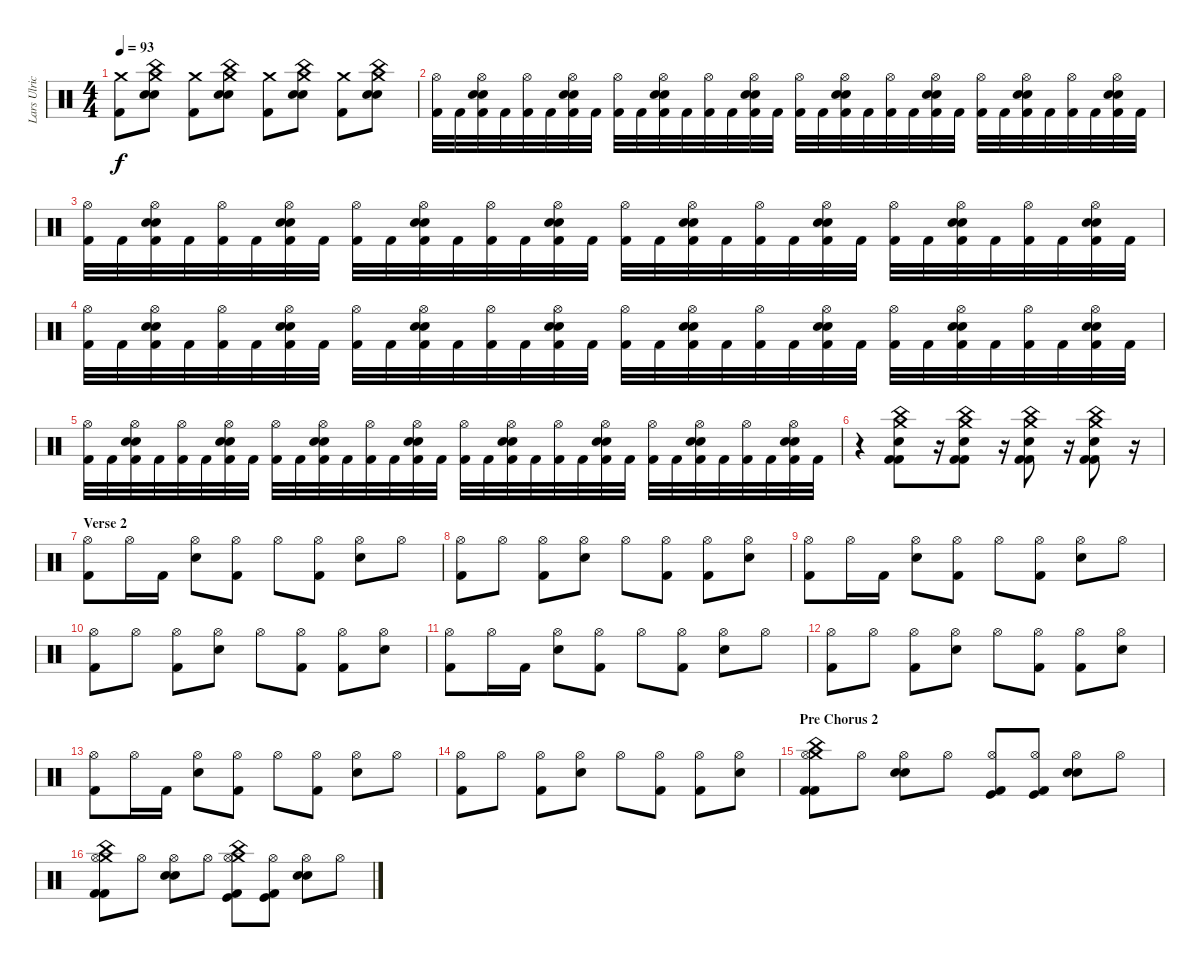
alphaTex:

\track ("Lars Ulrich" "Lars Ulric") {instrument percussion}
\staff {score}
\articulation defaults
\ts (4 4)
\tempo 93
\clef neutral
\ks c
("Crash medium (hit)" "Kick (hit) 2").8{dy f} ("Crash medium (hit)" "China (hit)" "Electric Snare (hit)" "Snare (hit) 2").8 ("Crash medium (hit)" "Kick (hit) 2").8 ("Crash medium (hit)" "China (hit)" "Electric Snare (hit)" "Snare (hit) 2").8 ("Crash medium (hit)" "Kick (hit) 2").8 ("Crash medium (hit)" "China (hit)" "Electric Snare (hit)" "Snare (hit) 2").8 ("Crash medium (hit)" "Kick (hit) 2").8 ("Crash medium (hit)" "China (hit)" "Electric Snare (hit)" "Snare (hit) 2").8 |
("Hi-Hat (open)" "Kick (hit) 2").32 "Kick (hit) 2".32 ("Hi-Hat (open)" "Electric Snare (hit)" "Snare (hit) 2" "Kick (hit) 2").32 "Kick (hit) 2".32 ("Hi-Hat (open)" "Kick (hit) 2").32 "Kick (hit) 2".32 ("Hi-Hat (open)" "Electric Snare (hit)" "Snare (hit) 2" "Kick (hit) 2").32 "Kick (hit) 2".32 ("Hi-Hat (open)" "Kick (hit) 2").32 "Kick (hit) 2".32 ("Hi-Hat (open)" "Electric Snare (hit)" "Snare (hit) 2" "Kick (hit) 2").32 "Kick (hit) 2".32 ("Hi-Hat (open)" "Kick (hit) 2").32 "Kick (hit) 2".32 ("Hi-Hat (open)" "Electric Snare (hit)" "Snare (hit) 2" "Kick (hit) 2").32 "Kick (hit) 2".32 ("Hi-Hat (open)" "Kick (hit) 2").32 "Kick (hit) 2".32 ("Hi-Hat (open)" "Electric Snare (hit)" "Snare (hit) 2" "Kick (hit) 2").32 "Kick (hit) 2".32 ("Hi-Hat (open)" "Kick (hit) 2").32 "Kick (hit) 2".32 ("Hi-Hat (open)" "Electric Snare (hit)" "Snare (hit) 2" "Kick (hit) 2").32 "Kick (hit) 2".32 ("Hi-Hat (open)" "Kick (hit) 2").32 "Kick (hit) 2".32 ("Hi-Hat (open)" "Electric Snare (hit)" "Snare (hit) 2" "Kick (hit) 2").32 "Kick (hit) 2".32 ("Hi-Hat (open)" "Kick (hit) 2").32 "Kick (hit) 2".32 ("Hi-Hat (open)" "Electric Snare (hit)" "Snare (hit) 2" "Kick (hit) 2").32 "Kick (hit) 2".32 |
("Hi-Hat (open)" "Kick (hit) 2").32 "Kick (hit) 2".32 ("Hi-Hat (open)" "Electric Snare (hit)" "Snare (hit) 2" "Kick (hit) 2").32 "Kick (hit) 2".32 ("Hi-Hat (open)" "Kick (hit) 2").32 "Kick (hit) 2".32 ("Hi-Hat (open)" "Electric Snare (hit)" "Snare (hit) 2" "Kick (hit) 2").32 "Kick (hit) 2".32 ("Hi-Hat (open)" "Kick (hit) 2").32 "Kick (hit) 2".32 ("Hi-Hat (open)" "Electric Snare (hit)" "Snare (hit) 2" "Kick (hit) 2").32 "Kick (hit) 2".32 ("Hi-Hat (open)" "Kick (hit) 2").32 "Kick (hit) 2".32 ("Hi-Hat (open)" "Electric Snare (hit)" "Snare (hit) 2" "Kick (hit) 2").32 "Kick (hit) 2".32 ("Hi-Hat (open)" "Kick (hit) 2").32 "Kick (hit) 2".32 ("Hi-Hat (open)" "Electric Snare (hit)" "Snare (hit) 2" "Kick (hit) 2").32 "Kick (hit) 2".32 ("Hi-Hat (open)" "Kick (hit) 2").32 "Kick (hit) 2".32 ("Hi-Hat (open)" "Electric Snare (hit)" "Snare (hit) 2" "Kick (hit) 2").32 "Kick (hit) 2".32 ("Hi-Hat (open)" "Kick (hit) 2").32 "Kick (hit) 2".32 ("Hi-Hat (open)" "Electric Snare (hit)" "Snare (hit) 2" "Kick (hit) 2").32 "Kick (hit) 2".32 ("Hi-Hat (open)" "Kick (hit) 2").32 "Kick (hit) 2".32 ("Hi-Hat (open)" "Electric Snare (hit)" "Snare (hit) 2" "Kick (hit) 2").32 "Kick (hit) 2".32 |
("Hi-Hat (open)" "Kick (hit) 2").32 "Kick (hit) 2".32 ("Hi-Hat (open)" "Electric Snare (hit)" "Snare (hit) 2" "Kick (hit) 2").32 "Kick (hit) 2".32 ("Hi-Hat (open)" "Kick (hit) 2").32 "Kick (hit) 2".32 ("Hi-Hat (open)" "Electric Snare (hit)" "Snare (hit) 2" "Kick (hit) 2").32 "Kick (hit) 2".32 ("Hi-Hat (open)" "Kick (hit) 2").32 "Kick (hit) 2".32 ("Hi-Hat (open)" "Electric Snare (hit)" "Snare (hit) 2" "Kick (hit) 2").32 "Kick (hit) 2".32 ("Hi-Hat (open)" "Kick (hit) 2").32 "Kick (hit) 2".32 ("Hi-Hat (open)" "Electric Snare (hit)" "Snare (hit) 2" "Kick (hit) 2").32 "Kick (hit) 2".32 ("Hi-Hat (open)" "Kick (hit) 2").32 "Kick (hit) 2".32 ("Hi-Hat (open)" "Electric Snare (hit)" "Snare (hit) 2" "Kick (hit) 2").32 "Kick (hit) 2".32 ("Hi-Hat (open)" "Kick (hit) 2").32 "Kick (hit) 2".32 ("Hi-Hat (open)" "Electric Snare (hit)" "Snare (hit) 2" "Kick (hit) 2").32 "Kick (hit) 2".32 ("Hi-Hat (open)" "Kick (hit) 2").32 "Kick (hit) 2".32 ("Hi-Hat (open)" "Electric Snare (hit)" "Snare (hit) 2" "Kick (hit) 2").32 "Kick (hit) 2".32 ("Hi-Hat (open)" "Kick (hit) 2").32 "Kick (hit) 2".32 ("Hi-Hat (open)" "Electric Snare (hit)" "Snare (hit) 2" "Kick (hit) 2").32 "Kick (hit) 2".32 |
("Hi-Hat (open)" "Kick (hit) 2").32 "Kick (hit) 2".32 ("Hi-Hat (open)" "Electric Snare (hit)" "Snare (hit) 2" "Kick (hit) 2").32 "Kick (hit) 2".32 ("Hi-Hat (open)" "Kick (hit) 2").32 "Kick (hit) 2".32 ("Hi-Hat (open)" "Electric Snare (hit)" "Snare (hit) 2" "Kick (hit) 2").32 "Kick (hit) 2".32 ("Hi-Hat (open)" "Kick (hit) 2").32 "Kick (hit) 2".32 ("Hi-Hat (open)" "Electric Snare (hit)" "Snare (hit) 2" "Kick (hit) 2").32 "Kick (hit) 2".32 ("Hi-Hat (open)" "Kick (hit) 2").32 "Kick (hit) 2".32 ("Hi-Hat (open)" "Electric Snare (hit)" "Snare (hit) 2" "Kick (hit) 2").32 "Kick (hit) 2".32 ("Hi-Hat (open)" "Kick (hit) 2").32 "Kick (hit) 2".32 ("Hi-Hat (open)" "Electric Snare (hit)" "Snare (hit) 2" "Kick (hit) 2").32 "Kick (hit) 2".32 ("Hi-Hat (open)" "Kick (hit) 2").32 "Kick (hit) 2".32 ("Hi-Hat (open)" "Electric Snare (hit)" "Snare (hit) 2" "Kick (hit) 2").32 "Kick (hit) 2".32 ("Hi-Hat (open)" "Kick (hit) 2").32 "Kick (hit) 2".32 ("Hi-Hat (open)" "Electric Snare (hit)" "Snare (hit) 2" "Kick (hit) 2").32 "Kick (hit) 2".32 ("Hi-Hat (open)" "Kick (hit) 2").32 "Kick (hit) 2".32 ("Hi-Hat (open)" "Electric Snare (hit)" "Snare (hit) 2" "Kick (hit) 2").32 "Kick (hit) 2".32 |
r.4 ("Crash medium (hit)" "China (hit)" "Kick (hit) 2" "Kick (hit) 2" "Snare (hit) 2").8 r.16 ("Crash medium (hit)" "China (hit)" "Kick (hit) 2" "Kick (hit) 2" "Snare (hit) 2").8 r.16 ("Crash medium (hit)" "China (hit)" "Kick (hit) 2" "Kick (hit) 2" "Snare (hit) 2").8 r.16 ("Crash medium (hit)" "China (hit)" "Kick (hit) 2" "Kick (hit) 2" "Snare (hit) 2").8 r.16 |
\section ("" "Verse 2")
("Hi-Hat (open)" "Kick (hit) 2").8 "Hi-Hat (open)".16 "Kick (hit) 2".16 ("Hi-Hat (open)" "Electric Snare (hit)").8 ("Hi-Hat (open)" "Kick (hit) 2").8 "Hi-Hat (open)".8 ("Hi-Hat (open)" "Kick (hit) 2").8 ("Hi-Hat (open)" "Electric Snare (hit)").8 "Hi-Hat (open)".8 |
("Hi-Hat (open)" "Kick (hit) 2").8 "Hi-Hat (open)".8 ("Hi-Hat (open)" "Kick (hit) 2").8 ("Hi-Hat (open)" "Electric Snare (hit)").8 "Hi-Hat (open)".8 ("Hi-Hat (open)" "Kick (hit) 2").8 ("Hi-Hat (open)" "Kick (hit) 2").8 ("Hi-Hat (open)" "Electric Snare (hit)").8 |
("Hi-Hat (open)" "Kick (hit) 2").8 "Hi-Hat (open)".16 "Kick (hit) 2".16 ("Hi-Hat (open)" "Electric Snare (hit)").8 ("Hi-Hat (open)" "Kick (hit) 2").8 "Hi-Hat (open)".8 ("Hi-Hat (open)" "Kick (hit) 2").8 ("Hi-Hat (open)" "Electric Snare (hit)").8 "Hi-Hat (open)".8 |
("Hi-Hat (open)" "Kick (hit) 2").8 "Hi-Hat (open)".8 ("Hi-Hat (open)" "Kick (hit) 2").8 ("Hi-Hat (open)" "Electric Snare (hit)").8 "Hi-Hat (open)".8 ("Hi-Hat (open)" "Kick (hit) 2").8 ("Hi-Hat (open)" "Kick (hit) 2").8 ("Hi-Hat (open)" "Electric Snare (hit)").8 |
("Hi-Hat (open)" "Kick (hit) 2").8 "Hi-Hat (open)".16 "Kick (hit) 2".16 ("Hi-Hat (open)" "Electric Snare (hit)").8 ("Hi-Hat (open)" "Kick (hit) 2").8 "Hi-Hat (open)".8 ("Hi-Hat (open)" "Kick (hit) 2").8 ("Hi-Hat (open)" "Electric Snare (hit)").8 "Hi-Hat (open)".8 |
("Hi-Hat (open)" "Kick (hit) 2").8 "Hi-Hat (open)".8 ("Hi-Hat (open)" "Kick (hit) 2").8 ("Hi-Hat (open)" "Electric Snare (hit)").8 "Hi-Hat (open)".8 ("Hi-Hat (open)" "Kick (hit) 2").8 ("Hi-Hat (open)" "Kick (hit) 2").8 ("Hi-Hat (open)" "Electric Snare (hit)").8 |
("Hi-Hat (open)" "Kick (hit) 2").8 "Hi-Hat (open)".16 "Kick (hit) 2".16 ("Hi-Hat (open)" "Electric Snare (hit)").8 ("Hi-Hat (open)" "Kick (hit) 2").8 "Hi-Hat (open)".8 ("Hi-Hat (open)" "Kick (hit) 2").8 ("Hi-Hat (open)" "Electric Snare (hit)").8 "Hi-Hat (open)".8 |
("Hi-Hat (open)" "Kick (hit) 2").8 "Hi-Hat (open)".8 ("Hi-Hat (open)" "Kick (hit) 2").8 ("Hi-Hat (open)" "Electric Snare (hit)").8 "Hi-Hat (open)".8 ("Hi-Hat (open)" "Kick (hit) 2").8 ("Hi-Hat (open)" "Kick (hit) 2").8 ("Hi-Hat (open)" "Electric Snare (hit)").8 |
\section ("" "Pre Chorus 2")
("Crash medium (hit)" "Hi-Hat (open)" "China (hit)" "Kick (hit) 2" "Kick (hit) 2").8 "Hi-Hat (open)".8 ("Hi-Hat (open)" "Electric Snare (hit)" "Snare (hit) 2").8 "Hi-Hat (open)".8 ("Hi-Hat (open)" "Kick (hit) 2" "Kick (hit)").8 ("Hi-Hat (open)" "Kick (hit) 2" "Kick (hit)").8 ("Hi-Hat (open)" "Electric Snare (hit)" "Snare (hit) 2").8 "Hi-Hat (open)".8 |
("Crash medium (hit)" "Hi-Hat (open)" "China (hit)" "Kick (hit) 2" "Kick (hit) 2").8 "Hi-Hat (open)".8 ("Hi-Hat (open)" "Electric Snare (hit)" "Snare (hit) 2").8 "Hi-Hat (open)".8 ("Crash medium (hit)" "Hi-Hat (open)" "China (hit)" "Kick (hit) 2" "Kick (hit)").8 ("Hi-Hat (open)" "Kick (hit) 2" "Kick (hit)").8 ("Hi-Hat (open)" "Electric Snare (hit)" "Snare (hit) 2").8 "Hi-Hat (open)".8
